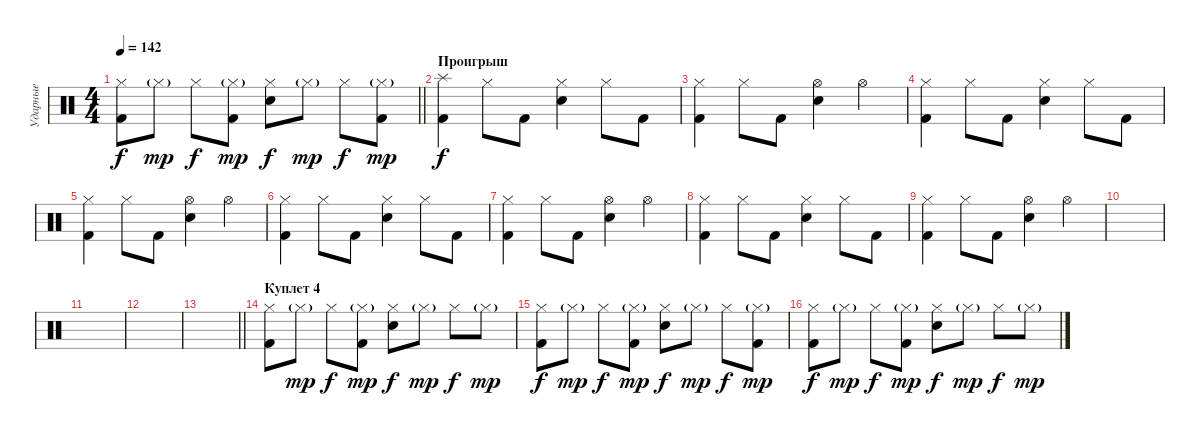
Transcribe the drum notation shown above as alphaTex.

\track ("Ударные" "Ударные") {instrument percussion}
\staff {score}
\articulation defaults
\ts (4 4)
\tempo 142
\clef neutral
\barLineRight lightlight
\ks c
("Hi-Hat (closed)" "Kick (hit) 2").8{dy f} "Hi-Hat (closed)"{g}.8{dy mp} "Hi-Hat (closed)".8{dy f} ("Hi-Hat (closed)"{g} "Kick (hit) 2").8{dy mp} ("Hi-Hat (closed)" "Snare (hit) 2").8{dy f} "Hi-Hat (closed)"{g}.8{dy mp} "Hi-Hat (closed)".8{dy f} ("Hi-Hat (closed)"{g} "Kick (hit) 2").8{dy mp} |
\section ("" "Проигрыш")
("Splash (hit)" "Kick (hit) 2").4{dy f} "Hi-Hat (closed)".8 "Kick (hit) 2".8 ("Hi-Hat (closed)" "Snare (hit) 2").4 "Hi-Hat (closed)".8 "Kick (hit) 2".8 |
("Hi-Hat (closed)" "Kick (hit) 2").4 "Hi-Hat (closed)".8 "Kick (hit) 2".8 ("Hi-Hat (open)" "Snare (hit) 2").4 "Hi-Hat (open)".4 |
("Hi-Hat (closed)" "Kick (hit) 2").4 "Hi-Hat (closed)".8 "Kick (hit) 2".8 ("Hi-Hat (closed)" "Snare (hit) 2").4 "Hi-Hat (closed)".8 "Kick (hit) 2".8 |
("Hi-Hat (closed)" "Kick (hit) 2").4 "Hi-Hat (closed)".8 "Kick (hit) 2".8 ("Hi-Hat (open)" "Snare (hit) 2").4 "Hi-Hat (open)".4 |
("Hi-Hat (closed)" "Kick (hit) 2").4 "Hi-Hat (closed)".8 "Kick (hit) 2".8 ("Hi-Hat (closed)" "Snare (hit) 2").4 "Hi-Hat (closed)".8 "Kick (hit) 2".8 |
("Hi-Hat (closed)" "Kick (hit) 2").4 "Hi-Hat (closed)".8 "Kick (hit) 2".8 ("Hi-Hat (open)" "Snare (hit) 2").4 "Hi-Hat (open)".4 |
("Hi-Hat (closed)" "Kick (hit) 2").4 "Hi-Hat (closed)".8 "Kick (hit) 2".8 ("Hi-Hat (closed)" "Snare (hit) 2").4 "Hi-Hat (closed)".8 "Kick (hit) 2".8 |
("Hi-Hat (closed)" "Kick (hit) 2").4 "Hi-Hat (closed)".8 "Kick (hit) 2".8 ("Hi-Hat (open)" "Snare (hit) 2").4 "Hi-Hat (open)".4 |
|
|
|
\barLineRight lightlight
|
\section ("" "Куплет 4")
("Hi-Hat (closed)" "Kick (hit) 2").8 "Hi-Hat (closed)"{g}.8{dy mp} "Hi-Hat (closed)".8{dy f} ("Hi-Hat (closed)"{g} "Kick (hit) 2").8{dy mp} ("Hi-Hat (closed)" "Snare (hit) 2").8{dy f} "Hi-Hat (closed)"{g}.8{dy mp} "Hi-Hat (closed)".8{dy f} "Hi-Hat (closed)"{g}.8{dy mp} |
("Hi-Hat (closed)" "Kick (hit) 2").8{dy f} "Hi-Hat (closed)"{g}.8{dy mp} "Hi-Hat (closed)".8{dy f} ("Hi-Hat (closed)"{g} "Kick (hit) 2").8{dy mp} ("Hi-Hat (closed)" "Snare (hit) 2").8{dy f} "Hi-Hat (closed)"{g}.8{dy mp} "Hi-Hat (closed)".8{dy f} ("Hi-Hat (closed)"{g} "Kick (hit) 2").8{dy mp} |
("Hi-Hat (closed)" "Kick (hit) 2").8{dy f} "Hi-Hat (closed)"{g}.8{dy mp} "Hi-Hat (closed)".8{dy f} ("Hi-Hat (closed)"{g} "Kick (hit) 2").8{dy mp} ("Hi-Hat (closed)" "Snare (hit) 2").8{dy f} "Hi-Hat (closed)"{g}.8{dy mp} "Hi-Hat (closed)".8{dy f} "Hi-Hat (closed)"{g}.8{dy mp}
